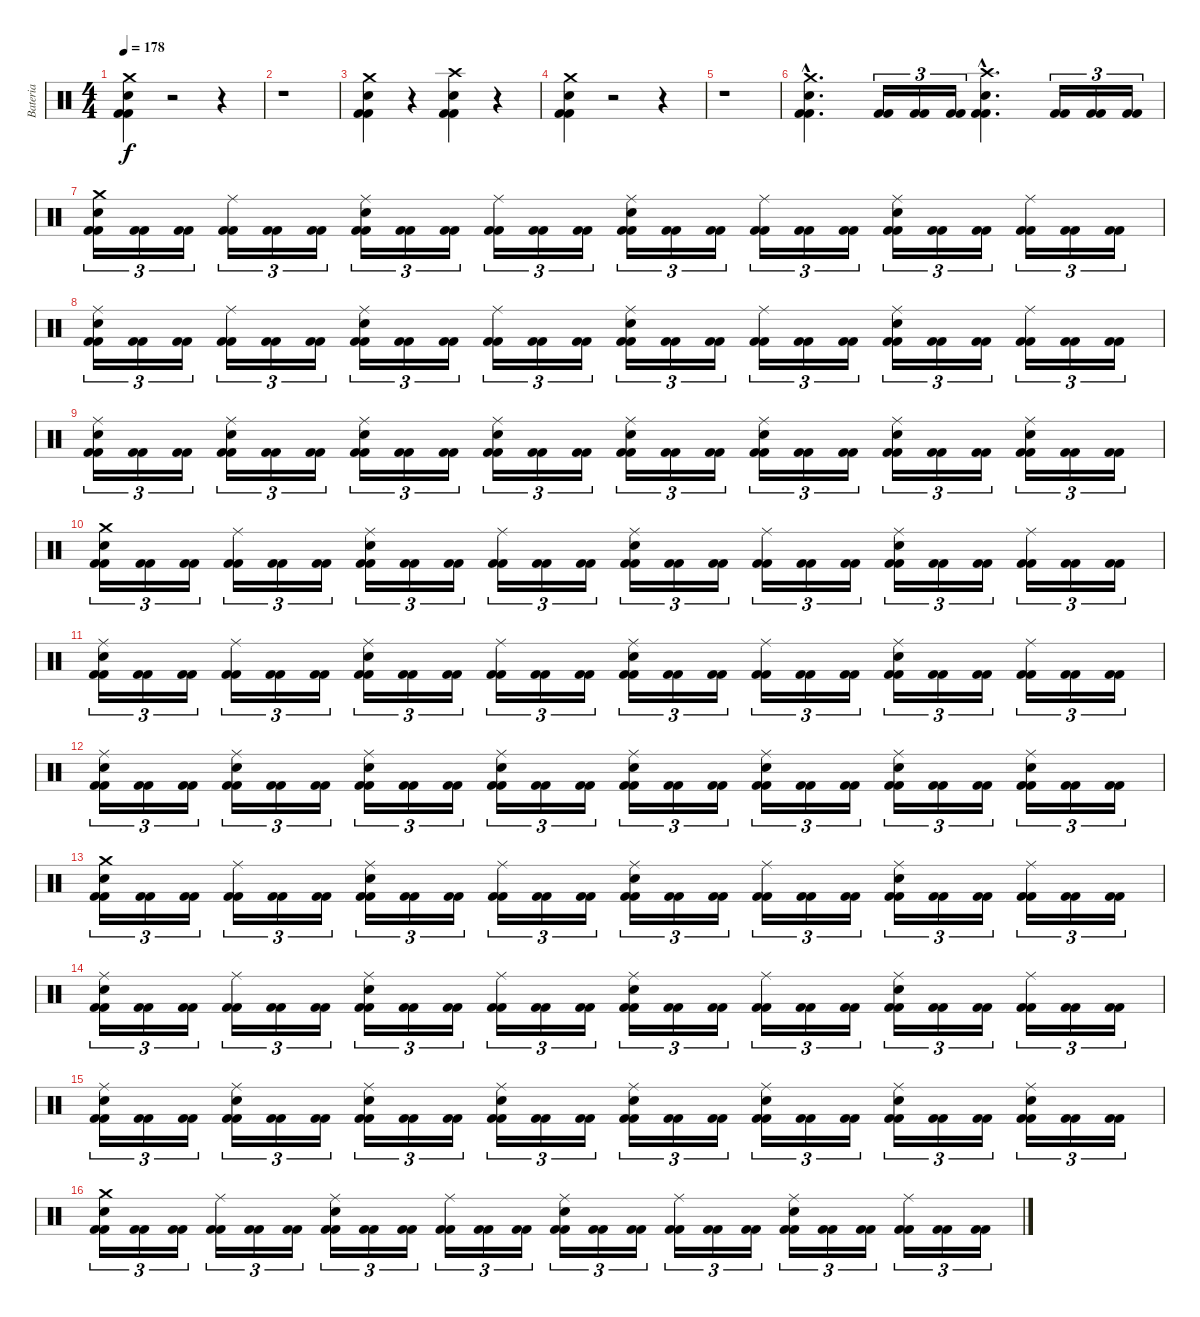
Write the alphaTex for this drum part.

\track ("Bateria" "Bateria") {instrument percussion}
\staff {score}
\articulation defaults
\ts (4 4)
\tempo 178
\clef neutral
\ks c
("Kick (hit) 2" "Kick (hit) 2" "Snare (hit) 2" "Crash medium (hit)").4{dy f} r.2 r.4 |
r.1 |
("Kick (hit) 2" "Kick (hit) 2" "Snare (hit) 2" "Crash medium (hit)").4 r.4 ("Kick (hit) 2" "Kick (hit) 2" "Snare (hit) 2" "Crash high (hit)").4 r.4 |
("Kick (hit) 2" "Kick (hit) 2" "Snare (hit) 2" "Crash medium (hit)").4 r.2 r.4 |
r.1 |
("Kick (hit) 2"{hac} "Kick (hit) 2"{hac} "Snare (hit) 2"{hac} "Crash medium (hit)"{hac}).4{d} ("Kick (hit) 2" "Kick (hit) 2").16{tu (3 2)} ("Kick (hit) 2" "Kick (hit) 2").16{tu (3 2)} ("Kick (hit) 2" "Kick (hit) 2").16{tu (3 2)} ("Kick (hit) 2"{hac} "Kick (hit) 2"{hac} "Snare (hit) 2"{hac} "Crash high (hit)"{hac}).4{d} ("Kick (hit) 2" "Kick (hit) 2").16{tu (3 2)} ("Kick (hit) 2" "Kick (hit) 2").16{tu (3 2)} ("Kick (hit) 2" "Kick (hit) 2").16{tu (3 2)} |
("Kick (hit) 2" "Kick (hit) 2" "Snare (hit) 2" "Crash medium (hit)").16{tu (3 2)} ("Kick (hit) 2" "Kick (hit) 2").16{tu (3 2)} ("Kick (hit) 2" "Kick (hit) 2").16{tu (3 2)} ("Kick (hit) 2" "Kick (hit) 2" "Ride (middle)").16{tu (3 2)} ("Kick (hit) 2" "Kick (hit) 2").16{tu (3 2)} ("Kick (hit) 2" "Kick (hit) 2").16{tu (3 2)} ("Kick (hit) 2" "Kick (hit) 2" "Snare (hit) 2" "Ride (middle)").16{tu (3 2)} ("Kick (hit) 2" "Kick (hit) 2").16{tu (3 2)} ("Kick (hit) 2" "Kick (hit) 2").16{tu (3 2)} ("Kick (hit) 2" "Kick (hit) 2" "Ride (middle)").16{tu (3 2)} ("Kick (hit) 2" "Kick (hit) 2").16{tu (3 2)} ("Kick (hit) 2" "Kick (hit) 2").16{tu (3 2)} ("Kick (hit) 2" "Kick (hit) 2" "Snare (hit) 2" "Ride (middle)").16{tu (3 2)} ("Kick (hit) 2" "Kick (hit) 2").16{tu (3 2)} ("Kick (hit) 2" "Kick (hit) 2").16{tu (3 2)} ("Kick (hit) 2" "Kick (hit) 2" "Ride (middle)").16{tu (3 2)} ("Kick (hit) 2" "Kick (hit) 2").16{tu (3 2)} ("Kick (hit) 2" "Kick (hit) 2").16{tu (3 2)} ("Kick (hit) 2" "Kick (hit) 2" "Snare (hit) 2" "Ride (middle)").16{tu (3 2)} ("Kick (hit) 2" "Kick (hit) 2").16{tu (3 2)} ("Kick (hit) 2" "Kick (hit) 2").16{tu (3 2)} ("Kick (hit) 2" "Kick (hit) 2" "Ride (middle)").16{tu (3 2)} ("Kick (hit) 2" "Kick (hit) 2").16{tu (3 2)} ("Kick (hit) 2" "Kick (hit) 2").16{tu (3 2)} |
("Kick (hit) 2" "Kick (hit) 2" "Snare (hit) 2" "Ride (middle)").16{tu (3 2)} ("Kick (hit) 2" "Kick (hit) 2").16{tu (3 2)} ("Kick (hit) 2" "Kick (hit) 2").16{tu (3 2)} ("Kick (hit) 2" "Kick (hit) 2" "Ride (middle)").16{tu (3 2)} ("Kick (hit) 2" "Kick (hit) 2").16{tu (3 2)} ("Kick (hit) 2" "Kick (hit) 2").16{tu (3 2)} ("Kick (hit) 2" "Kick (hit) 2" "Snare (hit) 2" "Ride (middle)").16{tu (3 2)} ("Kick (hit) 2" "Kick (hit) 2").16{tu (3 2)} ("Kick (hit) 2" "Kick (hit) 2").16{tu (3 2)} ("Kick (hit) 2" "Kick (hit) 2" "Ride (middle)").16{tu (3 2)} ("Kick (hit) 2" "Kick (hit) 2").16{tu (3 2)} ("Kick (hit) 2" "Kick (hit) 2").16{tu (3 2)} ("Kick (hit) 2" "Kick (hit) 2" "Snare (hit) 2" "Ride (middle)").16{tu (3 2)} ("Kick (hit) 2" "Kick (hit) 2").16{tu (3 2)} ("Kick (hit) 2" "Kick (hit) 2").16{tu (3 2)} ("Kick (hit) 2" "Kick (hit) 2" "Ride (middle)").16{tu (3 2)} ("Kick (hit) 2" "Kick (hit) 2").16{tu (3 2)} ("Kick (hit) 2" "Kick (hit) 2").16{tu (3 2)} ("Kick (hit) 2" "Kick (hit) 2" "Snare (hit) 2" "Ride (middle)").16{tu (3 2)} ("Kick (hit) 2" "Kick (hit) 2").16{tu (3 2)} ("Kick (hit) 2" "Kick (hit) 2").16{tu (3 2)} ("Kick (hit) 2" "Kick (hit) 2" "Ride (middle)").16{tu (3 2)} ("Kick (hit) 2" "Kick (hit) 2").16{tu (3 2)} ("Kick (hit) 2" "Kick (hit) 2").16{tu (3 2)} |
("Kick (hit) 2" "Kick (hit) 2" "Snare (hit) 2" "Ride (middle)").16{tu (3 2)} ("Kick (hit) 2" "Kick (hit) 2").16{tu (3 2)} ("Kick (hit) 2" "Kick (hit) 2").16{tu (3 2)} ("Kick (hit) 2" "Kick (hit) 2" "Snare (hit) 2" "Ride (middle)").16{tu (3 2)} ("Kick (hit) 2" "Kick (hit) 2").16{tu (3 2)} ("Kick (hit) 2" "Kick (hit) 2").16{tu (3 2)} ("Kick (hit) 2" "Kick (hit) 2" "Snare (hit) 2" "Ride (middle)").16{tu (3 2)} ("Kick (hit) 2" "Kick (hit) 2").16{tu (3 2)} ("Kick (hit) 2" "Kick (hit) 2").16{tu (3 2)} ("Kick (hit) 2" "Kick (hit) 2" "Snare (hit) 2" "Ride (middle)").16{tu (3 2)} ("Kick (hit) 2" "Kick (hit) 2").16{tu (3 2)} ("Kick (hit) 2" "Kick (hit) 2").16{tu (3 2)} ("Kick (hit) 2" "Kick (hit) 2" "Snare (hit) 2" "Ride (middle)").16{tu (3 2)} ("Kick (hit) 2" "Kick (hit) 2").16{tu (3 2)} ("Kick (hit) 2" "Kick (hit) 2").16{tu (3 2)} ("Kick (hit) 2" "Kick (hit) 2" "Snare (hit) 2" "Ride (middle)").16{tu (3 2)} ("Kick (hit) 2" "Kick (hit) 2").16{tu (3 2)} ("Kick (hit) 2" "Kick (hit) 2").16{tu (3 2)} ("Kick (hit) 2" "Kick (hit) 2" "Snare (hit) 2" "Ride (middle)").16{tu (3 2)} ("Kick (hit) 2" "Kick (hit) 2").16{tu (3 2)} ("Kick (hit) 2" "Kick (hit) 2").16{tu (3 2)} ("Kick (hit) 2" "Kick (hit) 2" "Snare (hit) 2" "Ride (middle)").16{tu (3 2)} ("Kick (hit) 2" "Kick (hit) 2").16{tu (3 2)} ("Kick (hit) 2" "Kick (hit) 2").16{tu (3 2)} |
("Kick (hit) 2" "Kick (hit) 2" "Snare (hit) 2" "Crash medium (hit)").16{tu (3 2)} ("Kick (hit) 2" "Kick (hit) 2").16{tu (3 2)} ("Kick (hit) 2" "Kick (hit) 2").16{tu (3 2)} ("Kick (hit) 2" "Kick (hit) 2" "Ride (middle)").16{tu (3 2)} ("Kick (hit) 2" "Kick (hit) 2").16{tu (3 2)} ("Kick (hit) 2" "Kick (hit) 2").16{tu (3 2)} ("Kick (hit) 2" "Kick (hit) 2" "Snare (hit) 2" "Ride (middle)").16{tu (3 2)} ("Kick (hit) 2" "Kick (hit) 2").16{tu (3 2)} ("Kick (hit) 2" "Kick (hit) 2").16{tu (3 2)} ("Kick (hit) 2" "Kick (hit) 2" "Ride (middle)").16{tu (3 2)} ("Kick (hit) 2" "Kick (hit) 2").16{tu (3 2)} ("Kick (hit) 2" "Kick (hit) 2").16{tu (3 2)} ("Kick (hit) 2" "Kick (hit) 2" "Snare (hit) 2" "Ride (middle)").16{tu (3 2)} ("Kick (hit) 2" "Kick (hit) 2").16{tu (3 2)} ("Kick (hit) 2" "Kick (hit) 2").16{tu (3 2)} ("Kick (hit) 2" "Kick (hit) 2" "Ride (middle)").16{tu (3 2)} ("Kick (hit) 2" "Kick (hit) 2").16{tu (3 2)} ("Kick (hit) 2" "Kick (hit) 2").16{tu (3 2)} ("Kick (hit) 2" "Kick (hit) 2" "Snare (hit) 2" "Ride (middle)").16{tu (3 2)} ("Kick (hit) 2" "Kick (hit) 2").16{tu (3 2)} ("Kick (hit) 2" "Kick (hit) 2").16{tu (3 2)} ("Kick (hit) 2" "Kick (hit) 2" "Ride (middle)").16{tu (3 2)} ("Kick (hit) 2" "Kick (hit) 2").16{tu (3 2)} ("Kick (hit) 2" "Kick (hit) 2").16{tu (3 2)} |
("Kick (hit) 2" "Kick (hit) 2" "Snare (hit) 2" "Ride (middle)").16{tu (3 2)} ("Kick (hit) 2" "Kick (hit) 2").16{tu (3 2)} ("Kick (hit) 2" "Kick (hit) 2").16{tu (3 2)} ("Kick (hit) 2" "Kick (hit) 2" "Ride (middle)").16{tu (3 2)} ("Kick (hit) 2" "Kick (hit) 2").16{tu (3 2)} ("Kick (hit) 2" "Kick (hit) 2").16{tu (3 2)} ("Kick (hit) 2" "Kick (hit) 2" "Snare (hit) 2" "Ride (middle)").16{tu (3 2)} ("Kick (hit) 2" "Kick (hit) 2").16{tu (3 2)} ("Kick (hit) 2" "Kick (hit) 2").16{tu (3 2)} ("Kick (hit) 2" "Kick (hit) 2" "Ride (middle)").16{tu (3 2)} ("Kick (hit) 2" "Kick (hit) 2").16{tu (3 2)} ("Kick (hit) 2" "Kick (hit) 2").16{tu (3 2)} ("Kick (hit) 2" "Kick (hit) 2" "Snare (hit) 2" "Ride (middle)").16{tu (3 2)} ("Kick (hit) 2" "Kick (hit) 2").16{tu (3 2)} ("Kick (hit) 2" "Kick (hit) 2").16{tu (3 2)} ("Kick (hit) 2" "Kick (hit) 2" "Ride (middle)").16{tu (3 2)} ("Kick (hit) 2" "Kick (hit) 2").16{tu (3 2)} ("Kick (hit) 2" "Kick (hit) 2").16{tu (3 2)} ("Kick (hit) 2" "Kick (hit) 2" "Snare (hit) 2" "Ride (middle)").16{tu (3 2)} ("Kick (hit) 2" "Kick (hit) 2").16{tu (3 2)} ("Kick (hit) 2" "Kick (hit) 2").16{tu (3 2)} ("Kick (hit) 2" "Kick (hit) 2" "Ride (middle)").16{tu (3 2)} ("Kick (hit) 2" "Kick (hit) 2").16{tu (3 2)} ("Kick (hit) 2" "Kick (hit) 2").16{tu (3 2)} |
("Kick (hit) 2" "Kick (hit) 2" "Snare (hit) 2" "Ride (middle)").16{tu (3 2)} ("Kick (hit) 2" "Kick (hit) 2").16{tu (3 2)} ("Kick (hit) 2" "Kick (hit) 2").16{tu (3 2)} ("Kick (hit) 2" "Kick (hit) 2" "Snare (hit) 2" "Ride (middle)").16{tu (3 2)} ("Kick (hit) 2" "Kick (hit) 2").16{tu (3 2)} ("Kick (hit) 2" "Kick (hit) 2").16{tu (3 2)} ("Kick (hit) 2" "Kick (hit) 2" "Snare (hit) 2" "Ride (middle)").16{tu (3 2)} ("Kick (hit) 2" "Kick (hit) 2").16{tu (3 2)} ("Kick (hit) 2" "Kick (hit) 2").16{tu (3 2)} ("Kick (hit) 2" "Kick (hit) 2" "Snare (hit) 2" "Ride (middle)").16{tu (3 2)} ("Kick (hit) 2" "Kick (hit) 2").16{tu (3 2)} ("Kick (hit) 2" "Kick (hit) 2").16{tu (3 2)} ("Kick (hit) 2" "Kick (hit) 2" "Snare (hit) 2" "Ride (middle)").16{tu (3 2)} ("Kick (hit) 2" "Kick (hit) 2").16{tu (3 2)} ("Kick (hit) 2" "Kick (hit) 2").16{tu (3 2)} ("Kick (hit) 2" "Kick (hit) 2" "Snare (hit) 2" "Ride (middle)").16{tu (3 2)} ("Kick (hit) 2" "Kick (hit) 2").16{tu (3 2)} ("Kick (hit) 2" "Kick (hit) 2").16{tu (3 2)} ("Kick (hit) 2" "Kick (hit) 2" "Snare (hit) 2" "Ride (middle)").16{tu (3 2)} ("Kick (hit) 2" "Kick (hit) 2").16{tu (3 2)} ("Kick (hit) 2" "Kick (hit) 2").16{tu (3 2)} ("Kick (hit) 2" "Kick (hit) 2" "Snare (hit) 2" "Ride (middle)").16{tu (3 2)} ("Kick (hit) 2" "Kick (hit) 2").16{tu (3 2)} ("Kick (hit) 2" "Kick (hit) 2").16{tu (3 2)} |
("Kick (hit) 2" "Kick (hit) 2" "Snare (hit) 2" "Crash medium (hit)").16{tu (3 2)} ("Kick (hit) 2" "Kick (hit) 2").16{tu (3 2)} ("Kick (hit) 2" "Kick (hit) 2").16{tu (3 2)} ("Kick (hit) 2" "Kick (hit) 2" "Ride (middle)").16{tu (3 2)} ("Kick (hit) 2" "Kick (hit) 2").16{tu (3 2)} ("Kick (hit) 2" "Kick (hit) 2").16{tu (3 2)} ("Kick (hit) 2" "Kick (hit) 2" "Snare (hit) 2" "Ride (middle)").16{tu (3 2)} ("Kick (hit) 2" "Kick (hit) 2").16{tu (3 2)} ("Kick (hit) 2" "Kick (hit) 2").16{tu (3 2)} ("Kick (hit) 2" "Kick (hit) 2" "Ride (middle)").16{tu (3 2)} ("Kick (hit) 2" "Kick (hit) 2").16{tu (3 2)} ("Kick (hit) 2" "Kick (hit) 2").16{tu (3 2)} ("Kick (hit) 2" "Kick (hit) 2" "Snare (hit) 2" "Ride (middle)").16{tu (3 2)} ("Kick (hit) 2" "Kick (hit) 2").16{tu (3 2)} ("Kick (hit) 2" "Kick (hit) 2").16{tu (3 2)} ("Kick (hit) 2" "Kick (hit) 2" "Ride (middle)").16{tu (3 2)} ("Kick (hit) 2" "Kick (hit) 2").16{tu (3 2)} ("Kick (hit) 2" "Kick (hit) 2").16{tu (3 2)} ("Kick (hit) 2" "Kick (hit) 2" "Snare (hit) 2" "Ride (middle)").16{tu (3 2)} ("Kick (hit) 2" "Kick (hit) 2").16{tu (3 2)} ("Kick (hit) 2" "Kick (hit) 2").16{tu (3 2)} ("Kick (hit) 2" "Kick (hit) 2" "Ride (middle)").16{tu (3 2)} ("Kick (hit) 2" "Kick (hit) 2").16{tu (3 2)} ("Kick (hit) 2" "Kick (hit) 2").16{tu (3 2)} |
("Kick (hit) 2" "Kick (hit) 2" "Snare (hit) 2" "Ride (middle)").16{tu (3 2)} ("Kick (hit) 2" "Kick (hit) 2").16{tu (3 2)} ("Kick (hit) 2" "Kick (hit) 2").16{tu (3 2)} ("Kick (hit) 2" "Kick (hit) 2" "Ride (middle)").16{tu (3 2)} ("Kick (hit) 2" "Kick (hit) 2").16{tu (3 2)} ("Kick (hit) 2" "Kick (hit) 2").16{tu (3 2)} ("Kick (hit) 2" "Kick (hit) 2" "Snare (hit) 2" "Ride (middle)").16{tu (3 2)} ("Kick (hit) 2" "Kick (hit) 2").16{tu (3 2)} ("Kick (hit) 2" "Kick (hit) 2").16{tu (3 2)} ("Kick (hit) 2" "Kick (hit) 2" "Ride (middle)").16{tu (3 2)} ("Kick (hit) 2" "Kick (hit) 2").16{tu (3 2)} ("Kick (hit) 2" "Kick (hit) 2").16{tu (3 2)} ("Kick (hit) 2" "Kick (hit) 2" "Snare (hit) 2" "Ride (middle)").16{tu (3 2)} ("Kick (hit) 2" "Kick (hit) 2").16{tu (3 2)} ("Kick (hit) 2" "Kick (hit) 2").16{tu (3 2)} ("Kick (hit) 2" "Kick (hit) 2" "Ride (middle)").16{tu (3 2)} ("Kick (hit) 2" "Kick (hit) 2").16{tu (3 2)} ("Kick (hit) 2" "Kick (hit) 2").16{tu (3 2)} ("Kick (hit) 2" "Kick (hit) 2" "Snare (hit) 2" "Ride (middle)").16{tu (3 2)} ("Kick (hit) 2" "Kick (hit) 2").16{tu (3 2)} ("Kick (hit) 2" "Kick (hit) 2").16{tu (3 2)} ("Kick (hit) 2" "Kick (hit) 2" "Ride (middle)").16{tu (3 2)} ("Kick (hit) 2" "Kick (hit) 2").16{tu (3 2)} ("Kick (hit) 2" "Kick (hit) 2").16{tu (3 2)} |
("Kick (hit) 2" "Kick (hit) 2" "Snare (hit) 2" "Ride (middle)").16{tu (3 2)} ("Kick (hit) 2" "Kick (hit) 2").16{tu (3 2)} ("Kick (hit) 2" "Kick (hit) 2").16{tu (3 2)} ("Kick (hit) 2" "Kick (hit) 2" "Snare (hit) 2" "Ride (middle)").16{tu (3 2)} ("Kick (hit) 2" "Kick (hit) 2").16{tu (3 2)} ("Kick (hit) 2" "Kick (hit) 2").16{tu (3 2)} ("Kick (hit) 2" "Kick (hit) 2" "Snare (hit) 2" "Ride (middle)").16{tu (3 2)} ("Kick (hit) 2" "Kick (hit) 2").16{tu (3 2)} ("Kick (hit) 2" "Kick (hit) 2").16{tu (3 2)} ("Kick (hit) 2" "Kick (hit) 2" "Snare (hit) 2" "Ride (middle)").16{tu (3 2)} ("Kick (hit) 2" "Kick (hit) 2").16{tu (3 2)} ("Kick (hit) 2" "Kick (hit) 2").16{tu (3 2)} ("Kick (hit) 2" "Kick (hit) 2" "Snare (hit) 2" "Ride (middle)").16{tu (3 2)} ("Kick (hit) 2" "Kick (hit) 2").16{tu (3 2)} ("Kick (hit) 2" "Kick (hit) 2").16{tu (3 2)} ("Kick (hit) 2" "Kick (hit) 2" "Snare (hit) 2" "Ride (middle)").16{tu (3 2)} ("Kick (hit) 2" "Kick (hit) 2").16{tu (3 2)} ("Kick (hit) 2" "Kick (hit) 2").16{tu (3 2)} ("Kick (hit) 2" "Kick (hit) 2" "Snare (hit) 2" "Ride (middle)").16{tu (3 2)} ("Kick (hit) 2" "Kick (hit) 2").16{tu (3 2)} ("Kick (hit) 2" "Kick (hit) 2").16{tu (3 2)} ("Kick (hit) 2" "Kick (hit) 2" "Snare (hit) 2" "Ride (middle)").16{tu (3 2)} ("Kick (hit) 2" "Kick (hit) 2").16{tu (3 2)} ("Kick (hit) 2" "Kick (hit) 2").16{tu (3 2)} |
("Kick (hit) 2" "Kick (hit) 2" "Snare (hit) 2" "Crash medium (hit)").16{tu (3 2)} ("Kick (hit) 2" "Kick (hit) 2").16{tu (3 2)} ("Kick (hit) 2" "Kick (hit) 2").16{tu (3 2)} ("Kick (hit) 2" "Kick (hit) 2" "Ride (middle)").16{tu (3 2)} ("Kick (hit) 2" "Kick (hit) 2").16{tu (3 2)} ("Kick (hit) 2" "Kick (hit) 2").16{tu (3 2)} ("Kick (hit) 2" "Kick (hit) 2" "Snare (hit) 2" "Ride (middle)").16{tu (3 2)} ("Kick (hit) 2" "Kick (hit) 2").16{tu (3 2)} ("Kick (hit) 2" "Kick (hit) 2").16{tu (3 2)} ("Kick (hit) 2" "Kick (hit) 2" "Ride (middle)").16{tu (3 2)} ("Kick (hit) 2" "Kick (hit) 2").16{tu (3 2)} ("Kick (hit) 2" "Kick (hit) 2").16{tu (3 2)} ("Kick (hit) 2" "Kick (hit) 2" "Snare (hit) 2" "Ride (middle)").16{tu (3 2)} ("Kick (hit) 2" "Kick (hit) 2").16{tu (3 2)} ("Kick (hit) 2" "Kick (hit) 2").16{tu (3 2)} ("Kick (hit) 2" "Kick (hit) 2" "Ride (middle)").16{tu (3 2)} ("Kick (hit) 2" "Kick (hit) 2").16{tu (3 2)} ("Kick (hit) 2" "Kick (hit) 2").16{tu (3 2)} ("Kick (hit) 2" "Kick (hit) 2" "Snare (hit) 2" "Ride (middle)").16{tu (3 2)} ("Kick (hit) 2" "Kick (hit) 2").16{tu (3 2)} ("Kick (hit) 2" "Kick (hit) 2").16{tu (3 2)} ("Kick (hit) 2" "Kick (hit) 2" "Ride (middle)").16{tu (3 2)} ("Kick (hit) 2" "Kick (hit) 2").16{tu (3 2)} ("Kick (hit) 2" "Kick (hit) 2").16{tu (3 2)}
